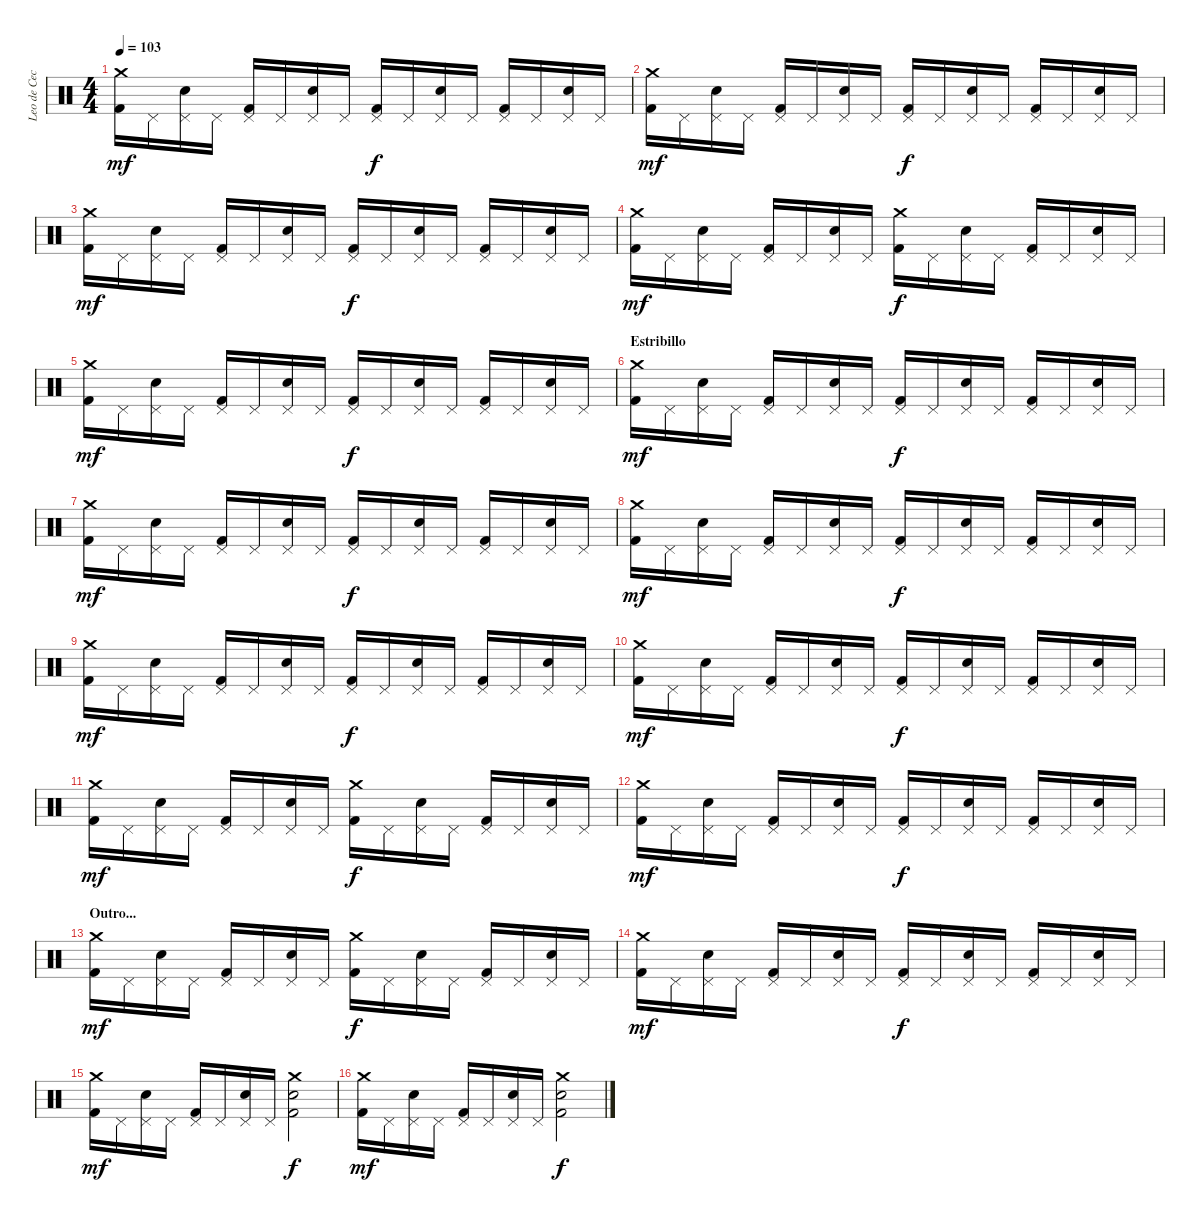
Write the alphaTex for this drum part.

\track ("Leo de Cecco" "Leo de Cec") {instrument percussion}
\staff {score}
\articulation defaults
\ts (4 4)
\tempo 103
\clef neutral
\ks c
("Crash medium (hit)" "Kick (hit) 2").16{dy mf} "Pedal Hi-Hat (hit)".16 ("Pedal Hi-Hat (hit)" "Snare (hit) 2").16 "Pedal Hi-Hat (hit)".16 ("Pedal Hi-Hat (hit)" "Kick (hit) 2").16 "Pedal Hi-Hat (hit)".16 ("Pedal Hi-Hat (hit)" "Snare (hit) 2").16 "Pedal Hi-Hat (hit)".16 ("Pedal Hi-Hat (hit)" "Kick (hit) 2").16{dy f} "Pedal Hi-Hat (hit)".16 ("Pedal Hi-Hat (hit)" "Snare (hit) 2").16 "Pedal Hi-Hat (hit)".16 ("Pedal Hi-Hat (hit)" "Kick (hit) 2").16 "Pedal Hi-Hat (hit)".16 ("Pedal Hi-Hat (hit)" "Snare (hit) 2").16 "Pedal Hi-Hat (hit)".16 |
("Crash medium (hit)" "Kick (hit) 2").16{dy mf} "Pedal Hi-Hat (hit)".16 ("Pedal Hi-Hat (hit)" "Snare (hit) 2").16 "Pedal Hi-Hat (hit)".16 ("Pedal Hi-Hat (hit)" "Kick (hit) 2").16 "Pedal Hi-Hat (hit)".16 ("Pedal Hi-Hat (hit)" "Snare (hit) 2").16 "Pedal Hi-Hat (hit)".16 ("Pedal Hi-Hat (hit)" "Kick (hit) 2").16{dy f} "Pedal Hi-Hat (hit)".16 ("Pedal Hi-Hat (hit)" "Snare (hit) 2").16 "Pedal Hi-Hat (hit)".16 ("Pedal Hi-Hat (hit)" "Kick (hit) 2").16 "Pedal Hi-Hat (hit)".16 ("Pedal Hi-Hat (hit)" "Snare (hit) 2").16 "Pedal Hi-Hat (hit)".16 |
("Crash medium (hit)" "Kick (hit) 2").16{dy mf} "Pedal Hi-Hat (hit)".16 ("Pedal Hi-Hat (hit)" "Snare (hit) 2").16 "Pedal Hi-Hat (hit)".16 ("Pedal Hi-Hat (hit)" "Kick (hit) 2").16 "Pedal Hi-Hat (hit)".16 ("Pedal Hi-Hat (hit)" "Snare (hit) 2").16 "Pedal Hi-Hat (hit)".16 ("Pedal Hi-Hat (hit)" "Kick (hit) 2").16{dy f} "Pedal Hi-Hat (hit)".16 ("Pedal Hi-Hat (hit)" "Snare (hit) 2").16 "Pedal Hi-Hat (hit)".16 ("Pedal Hi-Hat (hit)" "Kick (hit) 2").16 "Pedal Hi-Hat (hit)".16 ("Pedal Hi-Hat (hit)" "Snare (hit) 2").16 "Pedal Hi-Hat (hit)".16 |
("Crash medium (hit)" "Kick (hit) 2").16{dy mf} "Pedal Hi-Hat (hit)".16 ("Pedal Hi-Hat (hit)" "Snare (hit) 2").16 "Pedal Hi-Hat (hit)".16 ("Pedal Hi-Hat (hit)" "Kick (hit) 2").16 "Pedal Hi-Hat (hit)".16 ("Pedal Hi-Hat (hit)" "Snare (hit) 2").16 "Pedal Hi-Hat (hit)".16 ("Crash medium (hit)" "Kick (hit) 2").16{dy f} "Pedal Hi-Hat (hit)".16 ("Pedal Hi-Hat (hit)" "Snare (hit) 2").16 "Pedal Hi-Hat (hit)".16 ("Pedal Hi-Hat (hit)" "Kick (hit) 2").16 "Pedal Hi-Hat (hit)".16 ("Pedal Hi-Hat (hit)" "Snare (hit) 2").16 "Pedal Hi-Hat (hit)".16 |
("Crash medium (hit)" "Kick (hit) 2").16{dy mf} "Pedal Hi-Hat (hit)".16 ("Pedal Hi-Hat (hit)" "Snare (hit) 2").16 "Pedal Hi-Hat (hit)".16 ("Pedal Hi-Hat (hit)" "Kick (hit) 2").16 "Pedal Hi-Hat (hit)".16 ("Pedal Hi-Hat (hit)" "Snare (hit) 2").16 "Pedal Hi-Hat (hit)".16 ("Pedal Hi-Hat (hit)" "Kick (hit) 2").16{dy f} "Pedal Hi-Hat (hit)".16 ("Pedal Hi-Hat (hit)" "Snare (hit) 2").16 "Pedal Hi-Hat (hit)".16 ("Pedal Hi-Hat (hit)" "Kick (hit) 2").16 "Pedal Hi-Hat (hit)".16 ("Pedal Hi-Hat (hit)" "Snare (hit) 2").16 "Pedal Hi-Hat (hit)".16 |
\section ("" "Estribillo")
("Crash medium (hit)" "Kick (hit) 2").16{dy mf} "Pedal Hi-Hat (hit)".16 ("Pedal Hi-Hat (hit)" "Snare (hit) 2").16 "Pedal Hi-Hat (hit)".16 ("Pedal Hi-Hat (hit)" "Kick (hit) 2").16 "Pedal Hi-Hat (hit)".16 ("Pedal Hi-Hat (hit)" "Snare (hit) 2").16 "Pedal Hi-Hat (hit)".16 ("Pedal Hi-Hat (hit)" "Kick (hit) 2").16{dy f} "Pedal Hi-Hat (hit)".16 ("Pedal Hi-Hat (hit)" "Snare (hit) 2").16 "Pedal Hi-Hat (hit)".16 ("Pedal Hi-Hat (hit)" "Kick (hit) 2").16 "Pedal Hi-Hat (hit)".16 ("Pedal Hi-Hat (hit)" "Snare (hit) 2").16 "Pedal Hi-Hat (hit)".16 |
("Crash medium (hit)" "Kick (hit) 2").16{dy mf} "Pedal Hi-Hat (hit)".16 ("Pedal Hi-Hat (hit)" "Snare (hit) 2").16 "Pedal Hi-Hat (hit)".16 ("Pedal Hi-Hat (hit)" "Kick (hit) 2").16 "Pedal Hi-Hat (hit)".16 ("Pedal Hi-Hat (hit)" "Snare (hit) 2").16 "Pedal Hi-Hat (hit)".16 ("Pedal Hi-Hat (hit)" "Kick (hit) 2").16{dy f} "Pedal Hi-Hat (hit)".16 ("Pedal Hi-Hat (hit)" "Snare (hit) 2").16 "Pedal Hi-Hat (hit)".16 ("Pedal Hi-Hat (hit)" "Kick (hit) 2").16 "Pedal Hi-Hat (hit)".16 ("Pedal Hi-Hat (hit)" "Snare (hit) 2").16 "Pedal Hi-Hat (hit)".16 |
("Crash medium (hit)" "Kick (hit) 2").16{dy mf} "Pedal Hi-Hat (hit)".16 ("Pedal Hi-Hat (hit)" "Snare (hit) 2").16 "Pedal Hi-Hat (hit)".16 ("Pedal Hi-Hat (hit)" "Kick (hit) 2").16 "Pedal Hi-Hat (hit)".16 ("Pedal Hi-Hat (hit)" "Snare (hit) 2").16 "Pedal Hi-Hat (hit)".16 ("Pedal Hi-Hat (hit)" "Kick (hit) 2").16{dy f} "Pedal Hi-Hat (hit)".16 ("Pedal Hi-Hat (hit)" "Snare (hit) 2").16 "Pedal Hi-Hat (hit)".16 ("Pedal Hi-Hat (hit)" "Kick (hit) 2").16 "Pedal Hi-Hat (hit)".16 ("Pedal Hi-Hat (hit)" "Snare (hit) 2").16 "Pedal Hi-Hat (hit)".16 |
("Crash medium (hit)" "Kick (hit) 2").16{dy mf} "Pedal Hi-Hat (hit)".16 ("Pedal Hi-Hat (hit)" "Snare (hit) 2").16 "Pedal Hi-Hat (hit)".16 ("Pedal Hi-Hat (hit)" "Kick (hit) 2").16 "Pedal Hi-Hat (hit)".16 ("Pedal Hi-Hat (hit)" "Snare (hit) 2").16 "Pedal Hi-Hat (hit)".16 ("Pedal Hi-Hat (hit)" "Kick (hit) 2").16{dy f} "Pedal Hi-Hat (hit)".16 ("Pedal Hi-Hat (hit)" "Snare (hit) 2").16 "Pedal Hi-Hat (hit)".16 ("Pedal Hi-Hat (hit)" "Kick (hit) 2").16 "Pedal Hi-Hat (hit)".16 ("Pedal Hi-Hat (hit)" "Snare (hit) 2").16 "Pedal Hi-Hat (hit)".16 |
("Crash medium (hit)" "Kick (hit) 2").16{dy mf} "Pedal Hi-Hat (hit)".16 ("Pedal Hi-Hat (hit)" "Snare (hit) 2").16 "Pedal Hi-Hat (hit)".16 ("Pedal Hi-Hat (hit)" "Kick (hit) 2").16 "Pedal Hi-Hat (hit)".16 ("Pedal Hi-Hat (hit)" "Snare (hit) 2").16 "Pedal Hi-Hat (hit)".16 ("Pedal Hi-Hat (hit)" "Kick (hit) 2").16{dy f} "Pedal Hi-Hat (hit)".16 ("Pedal Hi-Hat (hit)" "Snare (hit) 2").16 "Pedal Hi-Hat (hit)".16 ("Pedal Hi-Hat (hit)" "Kick (hit) 2").16 "Pedal Hi-Hat (hit)".16 ("Pedal Hi-Hat (hit)" "Snare (hit) 2").16 "Pedal Hi-Hat (hit)".16 |
("Crash medium (hit)" "Kick (hit) 2").16{dy mf} "Pedal Hi-Hat (hit)".16 ("Pedal Hi-Hat (hit)" "Snare (hit) 2").16 "Pedal Hi-Hat (hit)".16 ("Pedal Hi-Hat (hit)" "Kick (hit) 2").16 "Pedal Hi-Hat (hit)".16 ("Pedal Hi-Hat (hit)" "Snare (hit) 2").16 "Pedal Hi-Hat (hit)".16 ("Crash medium (hit)" "Kick (hit) 2").16{dy f} "Pedal Hi-Hat (hit)".16 ("Pedal Hi-Hat (hit)" "Snare (hit) 2").16 "Pedal Hi-Hat (hit)".16 ("Pedal Hi-Hat (hit)" "Kick (hit) 2").16 "Pedal Hi-Hat (hit)".16 ("Pedal Hi-Hat (hit)" "Snare (hit) 2").16 "Pedal Hi-Hat (hit)".16 |
("Crash medium (hit)" "Kick (hit) 2").16{dy mf} "Pedal Hi-Hat (hit)".16 ("Pedal Hi-Hat (hit)" "Snare (hit) 2").16 "Pedal Hi-Hat (hit)".16 ("Pedal Hi-Hat (hit)" "Kick (hit) 2").16 "Pedal Hi-Hat (hit)".16 ("Pedal Hi-Hat (hit)" "Snare (hit) 2").16 "Pedal Hi-Hat (hit)".16 ("Pedal Hi-Hat (hit)" "Kick (hit) 2").16{dy f} "Pedal Hi-Hat (hit)".16 ("Pedal Hi-Hat (hit)" "Snare (hit) 2").16 "Pedal Hi-Hat (hit)".16 ("Pedal Hi-Hat (hit)" "Kick (hit) 2").16 "Pedal Hi-Hat (hit)".16 ("Pedal Hi-Hat (hit)" "Snare (hit) 2").16 "Pedal Hi-Hat (hit)".16 |
\section ("" "Outro...")
("Crash medium (hit)" "Kick (hit) 2").16{dy mf} "Pedal Hi-Hat (hit)".16 ("Pedal Hi-Hat (hit)" "Snare (hit) 2").16 "Pedal Hi-Hat (hit)".16 ("Pedal Hi-Hat (hit)" "Kick (hit) 2").16 "Pedal Hi-Hat (hit)".16 ("Pedal Hi-Hat (hit)" "Snare (hit) 2").16 "Pedal Hi-Hat (hit)".16 ("Crash medium (hit)" "Kick (hit) 2").16{dy f} "Pedal Hi-Hat (hit)".16 ("Pedal Hi-Hat (hit)" "Snare (hit) 2").16 "Pedal Hi-Hat (hit)".16 ("Pedal Hi-Hat (hit)" "Kick (hit) 2").16 "Pedal Hi-Hat (hit)".16 ("Pedal Hi-Hat (hit)" "Snare (hit) 2").16 "Pedal Hi-Hat (hit)".16 |
("Crash medium (hit)" "Kick (hit) 2").16{dy mf} "Pedal Hi-Hat (hit)".16 ("Pedal Hi-Hat (hit)" "Snare (hit) 2").16 "Pedal Hi-Hat (hit)".16 ("Pedal Hi-Hat (hit)" "Kick (hit) 2").16 "Pedal Hi-Hat (hit)".16 ("Pedal Hi-Hat (hit)" "Snare (hit) 2").16 "Pedal Hi-Hat (hit)".16 ("Pedal Hi-Hat (hit)" "Kick (hit) 2").16{dy f} "Pedal Hi-Hat (hit)".16 ("Pedal Hi-Hat (hit)" "Snare (hit) 2").16 "Pedal Hi-Hat (hit)".16 ("Pedal Hi-Hat (hit)" "Kick (hit) 2").16 "Pedal Hi-Hat (hit)".16 ("Pedal Hi-Hat (hit)" "Snare (hit) 2").16 "Pedal Hi-Hat (hit)".16 |
("Crash medium (hit)" "Kick (hit) 2").16{dy mf} "Pedal Hi-Hat (hit)".16 ("Pedal Hi-Hat (hit)" "Snare (hit) 2").16 "Pedal Hi-Hat (hit)".16 ("Pedal Hi-Hat (hit)" "Kick (hit) 2").16 "Pedal Hi-Hat (hit)".16 ("Pedal Hi-Hat (hit)" "Snare (hit) 2").16 "Pedal Hi-Hat (hit)".16 ("Crash medium (hit)" "Kick (hit) 2" "Snare (hit) 2").2{dy f} |
("Crash medium (hit)" "Kick (hit) 2").16{dy mf} "Pedal Hi-Hat (hit)".16 ("Pedal Hi-Hat (hit)" "Snare (hit) 2").16 "Pedal Hi-Hat (hit)".16 ("Pedal Hi-Hat (hit)" "Kick (hit) 2").16 "Pedal Hi-Hat (hit)".16 ("Pedal Hi-Hat (hit)" "Snare (hit) 2").16 "Pedal Hi-Hat (hit)".16 ("Crash medium (hit)" "Kick (hit) 2" "Snare (hit) 2").2{dy f}
